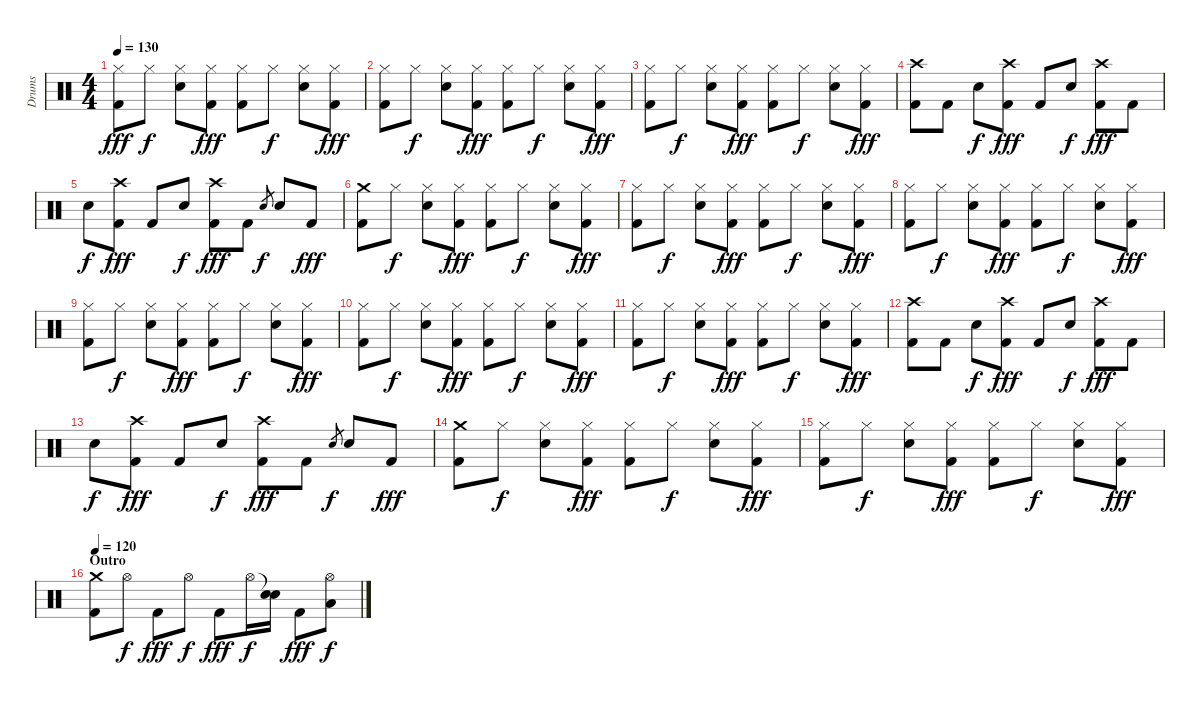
\track ("Drums" "Drums") {instrument percussion}
\staff {score}
\articulation defaults
\ts (4 4)
\tempo 130
\clef neutral
\ks c
("Hi-Hat (closed)" "Kick (hit) 2").8{dy fff} "Hi-Hat (closed)".8{dy f} ("Hi-Hat (closed)" "Snare (hit) 2").8 ("Hi-Hat (closed)" "Kick (hit) 2").8{dy fff} ("Hi-Hat (closed)" "Kick (hit) 2").8 "Hi-Hat (closed)".8{dy f} ("Hi-Hat (closed)" "Snare (hit) 2").8 ("Hi-Hat (closed)" "Kick (hit) 2").8{dy fff} |
("Hi-Hat (closed)" "Kick (hit) 2").8 "Hi-Hat (closed)".8{dy f} ("Hi-Hat (closed)" "Snare (hit) 2").8 ("Hi-Hat (closed)" "Kick (hit) 2").8{dy fff} ("Hi-Hat (closed)" "Kick (hit) 2").8 "Hi-Hat (closed)".8{dy f} ("Hi-Hat (closed)" "Snare (hit) 2").8 ("Hi-Hat (closed)" "Kick (hit) 2").8{dy fff} |
("Hi-Hat (closed)" "Kick (hit) 2").8 "Hi-Hat (closed)".8{dy f} ("Hi-Hat (closed)" "Snare (hit) 2").8 ("Hi-Hat (closed)" "Kick (hit) 2").8{dy fff} ("Hi-Hat (closed)" "Kick (hit) 2").8 "Hi-Hat (closed)".8{dy f} ("Hi-Hat (closed)" "Snare (hit) 2").8 ("Hi-Hat (closed)" "Kick (hit) 2").8{dy fff} |
("Crash high (hit)" "Kick (hit) 2").8 "Kick (hit) 2".8 "Snare (hit) 2".8{dy f} ("Crash high (hit)" "Kick (hit) 2").8{dy fff} "Kick (hit) 2".8 "Snare (hit) 2".8{dy f} ("Crash high (hit)" "Kick (hit) 2").8{dy fff} "Kick (hit) 2".8 |
"Snare (hit) 2".8{dy f} ("Crash high (hit)" "Kick (hit) 2").8{dy fff} "Kick (hit) 2".8 "Snare (hit) 2".8{dy f} ("Crash high (hit)" "Kick (hit) 2").8{dy fff} "Kick (hit) 2".8 "Snare (hit) 2".8{gr dy f} "Snare (hit) 2".8 "Kick (hit) 2".8{dy fff} |
("Crash medium (hit)" "Kick (hit) 2").8 "Hi-Hat (closed)".8{dy f} ("Hi-Hat (closed)" "Snare (hit) 2").8 ("Hi-Hat (closed)" "Kick (hit) 2").8{dy fff} ("Hi-Hat (closed)" "Kick (hit) 2").8 "Hi-Hat (closed)".8{dy f} ("Hi-Hat (closed)" "Snare (hit) 2").8 ("Hi-Hat (closed)" "Kick (hit) 2").8{dy fff} |
("Hi-Hat (closed)" "Kick (hit) 2").8 "Hi-Hat (closed)".8{dy f} ("Hi-Hat (closed)" "Snare (hit) 2").8 ("Hi-Hat (closed)" "Kick (hit) 2").8{dy fff} ("Hi-Hat (closed)" "Kick (hit) 2").8 "Hi-Hat (closed)".8{dy f} ("Hi-Hat (closed)" "Snare (hit) 2").8 ("Hi-Hat (closed)" "Kick (hit) 2").8{dy fff} |
("Hi-Hat (closed)" "Kick (hit) 2").8 "Hi-Hat (closed)".8{dy f} ("Hi-Hat (closed)" "Snare (hit) 2").8 ("Hi-Hat (closed)" "Kick (hit) 2").8{dy fff} ("Hi-Hat (closed)" "Kick (hit) 2").8 "Hi-Hat (closed)".8{dy f} ("Hi-Hat (closed)" "Snare (hit) 2").8 ("Hi-Hat (closed)" "Kick (hit) 2").8{dy fff} |
("Hi-Hat (closed)" "Kick (hit) 2").8 "Hi-Hat (closed)".8{dy f} ("Hi-Hat (closed)" "Snare (hit) 2").8 ("Hi-Hat (closed)" "Kick (hit) 2").8{dy fff} ("Hi-Hat (closed)" "Kick (hit) 2").8 "Hi-Hat (closed)".8{dy f} ("Hi-Hat (closed)" "Snare (hit) 2").8 ("Hi-Hat (closed)" "Kick (hit) 2").8{dy fff} |
("Hi-Hat (closed)" "Kick (hit) 2").8 "Hi-Hat (closed)".8{dy f} ("Hi-Hat (closed)" "Snare (hit) 2").8 ("Hi-Hat (closed)" "Kick (hit) 2").8{dy fff} ("Hi-Hat (closed)" "Kick (hit) 2").8 "Hi-Hat (closed)".8{dy f} ("Hi-Hat (closed)" "Snare (hit) 2").8 ("Hi-Hat (closed)" "Kick (hit) 2").8{dy fff} |
("Hi-Hat (closed)" "Kick (hit) 2").8 "Hi-Hat (closed)".8{dy f} ("Hi-Hat (closed)" "Snare (hit) 2").8 ("Hi-Hat (closed)" "Kick (hit) 2").8{dy fff} ("Hi-Hat (closed)" "Kick (hit) 2").8 "Hi-Hat (closed)".8{dy f} ("Hi-Hat (closed)" "Snare (hit) 2").8 ("Hi-Hat (closed)" "Kick (hit) 2").8{dy fff} |
("Crash high (hit)" "Kick (hit) 2").8 "Kick (hit) 2".8 "Snare (hit) 2".8{dy f} ("Crash high (hit)" "Kick (hit) 2").8{dy fff} "Kick (hit) 2".8 "Snare (hit) 2".8{dy f} ("Crash high (hit)" "Kick (hit) 2").8{dy fff} "Kick (hit) 2".8 |
"Snare (hit) 2".8{dy f} ("Crash high (hit)" "Kick (hit) 2").8{dy fff} "Kick (hit) 2".8 "Snare (hit) 2".8{dy f} ("Crash high (hit)" "Kick (hit) 2").8{dy fff} "Kick (hit) 2".8 "Snare (hit) 2".8{gr dy f} "Snare (hit) 2".8 "Kick (hit) 2".8{dy fff} |
("Crash medium (hit)" "Kick (hit) 2").8 "Hi-Hat (closed)".8{dy f} ("Hi-Hat (closed)" "Snare (hit) 2").8 ("Hi-Hat (closed)" "Kick (hit) 2").8{dy fff} ("Hi-Hat (closed)" "Kick (hit) 2").8 "Hi-Hat (closed)".8{dy f} ("Hi-Hat (closed)" "Snare (hit) 2").8 ("Hi-Hat (closed)" "Kick (hit) 2").8{dy fff} |
("Hi-Hat (closed)" "Kick (hit) 2").8 "Hi-Hat (closed)".8{dy f} ("Hi-Hat (closed)" "Snare (hit) 2").8 ("Hi-Hat (closed)" "Kick (hit) 2").8{dy fff} ("Hi-Hat (closed)" "Kick (hit) 2").8 "Hi-Hat (closed)".8{dy f} ("Hi-Hat (closed)" "Snare (hit) 2").8 ("Hi-Hat (closed)" "Kick (hit) 2").8{dy fff} |
\section ("" "Outro")
\tempo 120
("Crash medium (hit)" "Kick (hit) 2").8 "Hi-Hat (open)".8{dy f} "Kick (hit) 2".8{dy fff} "Hi-Hat (open)".8{dy f} "Kick (hit) 2".8{dy fff} "Hi-Hat (open)".16{dy f} ("Snare (hit)"{t} "Snare (hit) 2").16 "Kick (hit) 2".8{dy fff} ("Hi-Hat (open)" "Low Tom (hit)").8{dy f}
